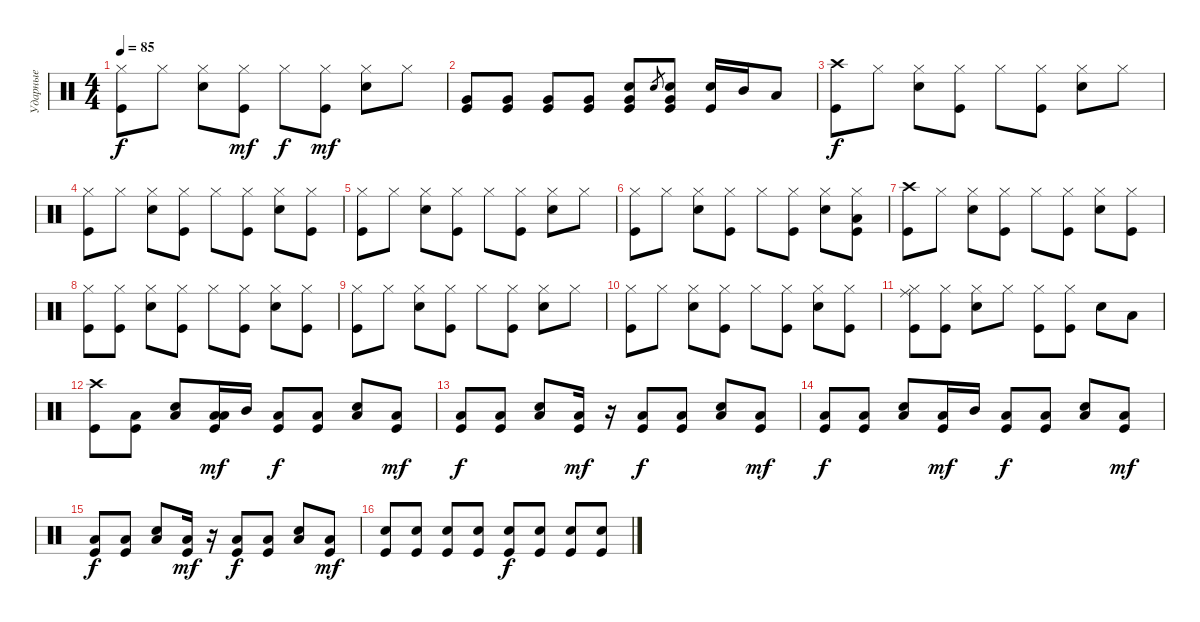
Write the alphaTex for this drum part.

\track ("Ударные" "Ударные") {instrument percussion}
\staff {score}
\articulation defaults
\ts (4 4)
\tempo 85
\clef neutral
\ks c
("Hi-Hat (closed)" "Kick (hit)").8{dy f} "Hi-Hat (closed)".8 ("Hi-Hat (closed)" "Electric Snare (hit)").8 ("Hi-Hat (closed)" "Kick (hit)").8{dy mf} "Hi-Hat (closed)".8{dy f} ("Hi-Hat (closed)" "Kick (hit)").8{dy mf} ("Hi-Hat (closed)" "Electric Snare (hit)").8 "Hi-Hat (closed)".8 |
("Very Low Tom (hit)" "Kick (hit)").8 ("Very Low Tom (hit)" "Kick (hit)").8 ("Very Low Tom (hit)" "Kick (hit)").8 ("Very Low Tom (hit)" "Kick (hit)").8 ("Electric Snare (hit)" "Very Low Tom (hit)" "Kick (hit)").8 "Electric Snare (hit)".8{gr} ("Electric Snare (hit)" "Very Low Tom (hit)" "Kick (hit)").8 ("Electric Snare (hit)" "Kick (hit)").16 "Mid Tom (hit)".16 "Low Tom (hit)".8 |
("Crash high (hit)" "Kick (hit)").8{dy f} "Hi-Hat (closed)".8 ("Hi-Hat (closed)" "Electric Snare (hit)").8 ("Hi-Hat (closed)" "Kick (hit)").8 "Hi-Hat (closed)".8 ("Hi-Hat (closed)" "Kick (hit)").8 ("Hi-Hat (closed)" "Electric Snare (hit)").8 "Hi-Hat (closed)".8 |
("Hi-Hat (closed)" "Kick (hit)").8 "Hi-Hat (closed)".8 ("Hi-Hat (closed)" "Electric Snare (hit)").8 ("Hi-Hat (closed)" "Kick (hit)").8 "Hi-Hat (closed)".8 ("Hi-Hat (closed)" "Kick (hit)").8 ("Hi-Hat (closed)" "Electric Snare (hit)").8 ("Hi-Hat (closed)" "Kick (hit)").8 |
("Hi-Hat (closed)" "Kick (hit)").8 "Hi-Hat (closed)".8 ("Hi-Hat (closed)" "Electric Snare (hit)").8 ("Hi-Hat (closed)" "Kick (hit)").8 "Hi-Hat (closed)".8 ("Hi-Hat (closed)" "Kick (hit)").8 ("Hi-Hat (closed)" "Electric Snare (hit)").8 "Hi-Hat (closed)".8 |
("Hi-Hat (closed)" "Kick (hit)").8 "Hi-Hat (closed)".8 ("Hi-Hat (closed)" "Electric Snare (hit)").8 ("Hi-Hat (closed)" "Kick (hit)").8 "Hi-Hat (closed)".8 ("Hi-Hat (closed)" "Kick (hit)").8 ("Hi-Hat (closed)" "Electric Snare (hit)").8 ("Hi-Hat (closed)" "Low Floor Tom (hit)" "Kick (hit)").8 |
("Crash high (hit)" "Kick (hit)").8 "Hi-Hat (closed)".8 ("Hi-Hat (closed)" "Electric Snare (hit)").8 ("Hi-Hat (closed)" "Kick (hit)").8 "Hi-Hat (closed)".8 ("Hi-Hat (closed)" "Kick (hit)").8 ("Hi-Hat (closed)" "Electric Snare (hit)").8 ("Hi-Hat (closed)" "Kick (hit)").8 |
("Hi-Hat (closed)" "Kick (hit)").8 ("Hi-Hat (closed)" "Kick (hit)").8 ("Hi-Hat (closed)" "Electric Snare (hit)").8 ("Hi-Hat (closed)" "Kick (hit)").8 "Hi-Hat (closed)".8 ("Hi-Hat (closed)" "Kick (hit)").8 ("Hi-Hat (closed)" "Electric Snare (hit)").8 ("Hi-Hat (closed)" "Kick (hit)").8 |
("Hi-Hat (closed)" "Kick (hit)").8 "Hi-Hat (closed)".8 ("Hi-Hat (closed)" "Electric Snare (hit)").8 ("Hi-Hat (closed)" "Kick (hit)").8 "Hi-Hat (closed)".8 ("Hi-Hat (closed)" "Kick (hit)").8 ("Hi-Hat (closed)" "Electric Snare (hit)").8 "Hi-Hat (closed)".8 |
("Hi-Hat (closed)" "Kick (hit)").8 "Hi-Hat (closed)".8 ("Hi-Hat (closed)" "Electric Snare (hit)").8 ("Hi-Hat (closed)" "Kick (hit)").8 "Hi-Hat (closed)".8 ("Hi-Hat (closed)" "Kick (hit)").8 ("Hi-Hat (closed)" "Electric Snare (hit)").8 ("Hi-Hat (closed)" "Kick (hit)").8 |
("Ride (middle)" "Hi-Hat (closed)" "Kick (hit)").8 ("Hi-Hat (closed)" "Kick (hit)").8 ("Hi-Hat (closed)" "Electric Snare (hit)").8 "Hi-Hat (closed)".8 ("Hi-Hat (closed)" "Kick (hit)").8 ("Hi-Hat (closed)" "Kick (hit)").8 "Electric Snare (hit)".8 "Low Tom (hit)".8 |
("Crash high (hit)" "Kick (hit)").8 ("Low Floor Tom (hit)" "Kick (hit)").8 ("Low Floor Tom (hit)" "Electric Snare (hit)").8 ("Low Tom (hit)" "Low Floor Tom (hit)" "Kick (hit)").16{dy mf} "Mid Tom (hit)".16 ("Low Floor Tom (hit)" "Kick (hit)").8{dy f} ("Low Floor Tom (hit)" "Kick (hit)").8 ("Low Floor Tom (hit)" "Electric Snare (hit)").8 ("Low Floor Tom (hit)" "Kick (hit)").8{dy mf} |
("Low Floor Tom (hit)" "Kick (hit)").8{dy f} ("Low Floor Tom (hit)" "Kick (hit)").8 ("Low Floor Tom (hit)" "Electric Snare (hit)").8 ("Low Floor Tom (hit)" "Kick (hit)").16{dy mf} r.16 ("Low Floor Tom (hit)" "Kick (hit)").8{dy f} ("Low Floor Tom (hit)" "Kick (hit)").8 ("Low Floor Tom (hit)" "Electric Snare (hit)").8 ("Low Floor Tom (hit)" "Kick (hit)").8{dy mf} |
("Low Floor Tom (hit)" "Kick (hit)").8{dy f} ("Low Floor Tom (hit)" "Kick (hit)").8 ("Low Floor Tom (hit)" "Electric Snare (hit)").8 ("Low Tom (hit)" "Kick (hit)").16{dy mf} "Mid Tom (hit)".16 ("Low Floor Tom (hit)" "Kick (hit)").8{dy f} ("Low Floor Tom (hit)" "Kick (hit)").8 ("Low Floor Tom (hit)" "Electric Snare (hit)").8 ("Low Floor Tom (hit)" "Kick (hit)").8{dy mf} |
("Low Floor Tom (hit)" "Kick (hit)").8{dy f} ("Low Floor Tom (hit)" "Kick (hit)").8 ("Low Floor Tom (hit)" "Electric Snare (hit)").8 ("Low Floor Tom (hit)" "Kick (hit)").16{dy mf} r.16 ("Low Floor Tom (hit)" "Kick (hit)").8{dy f} ("Low Floor Tom (hit)" "Kick (hit)").8 ("Low Floor Tom (hit)" "Electric Snare (hit)").8 ("Low Floor Tom (hit)" "Kick (hit)").8{dy mf} |
("Electric Snare (hit)" "Kick (hit)").8 ("Electric Snare (hit)" "Kick (hit)").8 ("Electric Snare (hit)" "Kick (hit)").8 ("Electric Snare (hit)" "Kick (hit)").8 ("Electric Snare (hit)" "Kick (hit)").8{dy f} ("Electric Snare (hit)" "Kick (hit)").8 ("Electric Snare (hit)" "Kick (hit)").8 ("Electric Snare (hit)" "Kick (hit)").8
